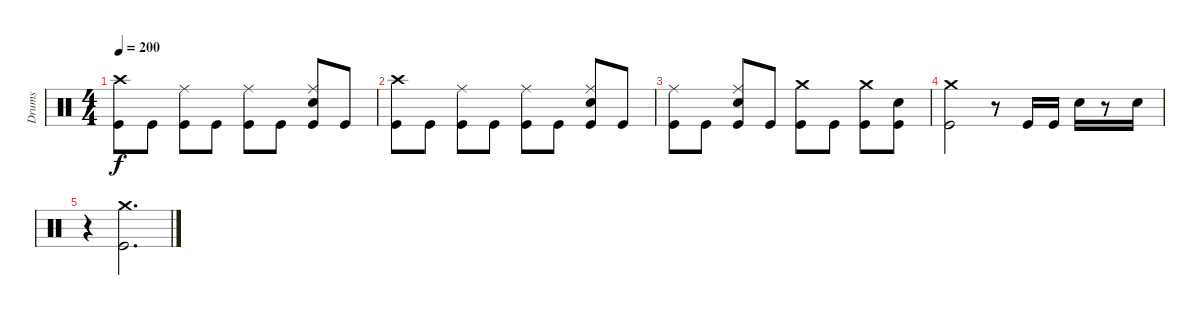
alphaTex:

\track ("Drums" "Drums") {instrument percussion}
\staff {score}
\articulation defaults
\ts (4 4)
\tempo 200
\clef neutral
\ks c
("Crash high (hit)" "Kick (hit)").8{dy f} "Kick (hit)".8 ("Ride (middle)" "Kick (hit)").8 "Kick (hit)".8 ("Ride (middle)" "Kick (hit)").8 "Kick (hit)".8 ("Ride (middle)" "Snare (hit) 2" "Kick (hit)").8 "Kick (hit)".8 |
("Crash high (hit)" "Kick (hit)").8 "Kick (hit)".8 ("Ride (middle)" "Kick (hit)").8 "Kick (hit)".8 ("Ride (middle)" "Kick (hit)").8 "Kick (hit)".8 ("Ride (middle)" "Snare (hit) 2" "Kick (hit)").8 "Kick (hit)".8 |
("Ride (middle)" "Kick (hit)").8 "Kick (hit)".8 ("Ride (middle)" "Snare (hit) 2" "Kick (hit)").8 "Kick (hit)".8 ("Crash medium (hit)" "Kick (hit)").8 "Kick (hit)".8 ("Crash medium (hit)" "Kick (hit)").8 ("Snare (hit) 2" "Kick (hit)").8 |
("Crash medium (hit)" "Kick (hit)").2 r.8 "Kick (hit)".16 "Kick (hit)".16 "Snare (hit) 2".16 r.8 "Snare (hit) 2".16 |
r.4 ("Crash medium (hit)" "Kick (hit)").2{d}
